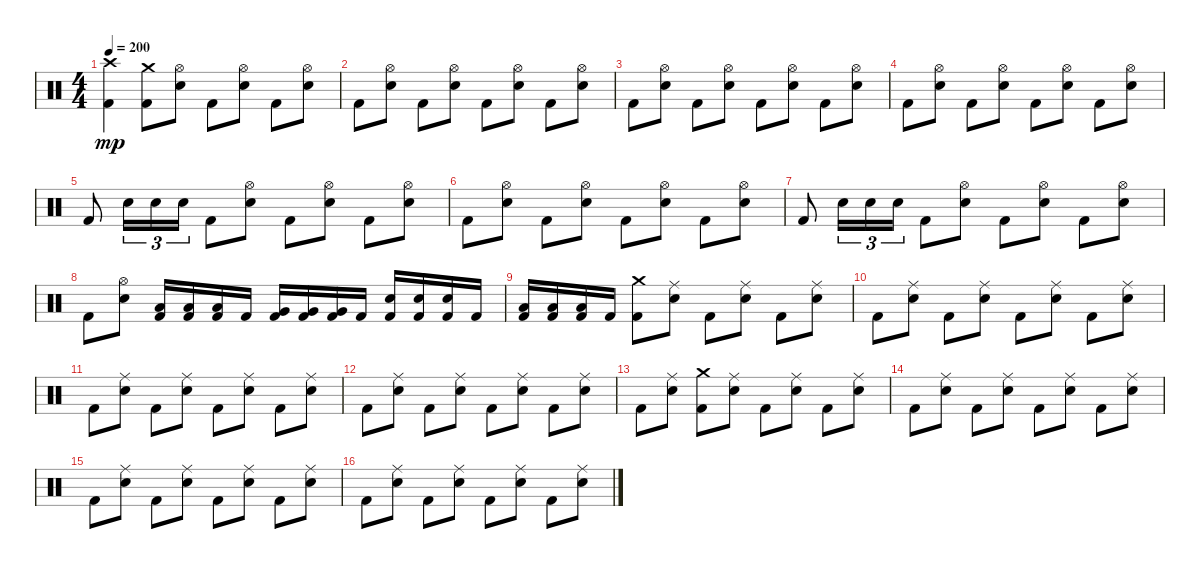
\track "" {instrument percussion}
\staff {score}
\articulation defaults
\ts (4 4)
\tempo 200
\clef neutral
\ks c
("Kick (hit) 2" "Crash high (hit)").4{dy mp} ("Kick (hit) 2" "Crash medium (hit)").8 ("Electric Snare (hit)" "Hi-Hat (open)").8 "Kick (hit) 2".8 ("Electric Snare (hit)" "Hi-Hat (open)").8 "Kick (hit) 2".8 ("Electric Snare (hit)" "Hi-Hat (open)").8 |
"Kick (hit) 2".8 ("Electric Snare (hit)" "Hi-Hat (open)").8 "Kick (hit) 2".8 ("Electric Snare (hit)" "Hi-Hat (open)").8 "Kick (hit) 2".8 ("Electric Snare (hit)" "Hi-Hat (open)").8 "Kick (hit) 2".8 ("Electric Snare (hit)" "Hi-Hat (open)").8 |
"Kick (hit) 2".8 ("Electric Snare (hit)" "Hi-Hat (open)").8 "Kick (hit) 2".8 ("Electric Snare (hit)" "Hi-Hat (open)").8 "Kick (hit) 2".8 ("Electric Snare (hit)" "Hi-Hat (open)").8 "Kick (hit) 2".8 ("Electric Snare (hit)" "Hi-Hat (open)").8 |
"Kick (hit) 2".8 ("Electric Snare (hit)" "Hi-Hat (open)").8 "Kick (hit) 2".8 ("Electric Snare (hit)" "Hi-Hat (open)").8 "Kick (hit) 2".8 ("Electric Snare (hit)" "Hi-Hat (open)").8 "Kick (hit) 2".8 ("Electric Snare (hit)" "Hi-Hat (open)").8 |
"Kick (hit) 2".8 "Electric Snare (hit)".16{tu (3 2)} "Electric Snare (hit)".16{tu (3 2)} "Electric Snare (hit)".16{tu (3 2)} "Kick (hit) 2".8 ("Electric Snare (hit)" "Hi-Hat (open)").8 "Kick (hit) 2".8 ("Electric Snare (hit)" "Hi-Hat (open)").8 "Kick (hit) 2".8 ("Electric Snare (hit)" "Hi-Hat (open)").8 |
"Kick (hit) 2".8 ("Electric Snare (hit)" "Hi-Hat (open)").8 "Kick (hit) 2".8 ("Electric Snare (hit)" "Hi-Hat (open)").8 "Kick (hit) 2".8 ("Electric Snare (hit)" "Hi-Hat (open)").8 "Kick (hit) 2".8 ("Electric Snare (hit)" "Hi-Hat (open)").8 |
"Kick (hit) 2".8 "Electric Snare (hit)".16{tu (3 2)} "Electric Snare (hit)".16{tu (3 2)} "Electric Snare (hit)".16{tu (3 2)} "Kick (hit) 2".8 ("Electric Snare (hit)" "Hi-Hat (open)").8 "Kick (hit) 2".8 ("Electric Snare (hit)" "Hi-Hat (open)").8 "Kick (hit) 2".8 ("Electric Snare (hit)" "Hi-Hat (open)").8 |
"Kick (hit) 2".8 ("Electric Snare (hit)" "Hi-Hat (open)").8 ("Kick (hit) 2" "Low Tom (hit)").16 ("Kick (hit) 2" "Low Tom (hit)").16 ("Kick (hit) 2" "Low Tom (hit)").16 "Kick (hit) 2".16 ("Kick (hit) 2" "Very Low Tom (hit)").16 ("Kick (hit) 2" "Very Low Tom (hit)").16 ("Kick (hit) 2" "Very Low Tom (hit)").16 "Kick (hit) 2".16 ("Kick (hit) 2" "Electric Snare (hit)").16 ("Kick (hit) 2" "Electric Snare (hit)").16 ("Kick (hit) 2" "Electric Snare (hit)").16 "Kick (hit) 2".16 |
("Kick (hit) 2" "Low Floor Tom (hit)").16 ("Kick (hit) 2" "Low Floor Tom (hit)").16 ("Kick (hit) 2" "Low Floor Tom (hit)").16 "Kick (hit) 2".16 ("Kick (hit) 2" "Crash medium (hit)").8 ("Electric Snare (hit)" "Ride (middle)").8 "Kick (hit) 2".8 ("Electric Snare (hit)" "Ride (middle)").8 "Kick (hit) 2".8 ("Electric Snare (hit)" "Ride (middle)").8 |
"Kick (hit) 2".8 ("Electric Snare (hit)" "Ride (middle)").8 "Kick (hit) 2".8 ("Electric Snare (hit)" "Ride (middle)").8 "Kick (hit) 2".8 ("Electric Snare (hit)" "Ride (middle)").8 "Kick (hit) 2".8 ("Electric Snare (hit)" "Ride (middle)").8 |
"Kick (hit) 2".8 ("Electric Snare (hit)" "Ride (middle)").8 "Kick (hit) 2".8 ("Electric Snare (hit)" "Ride (middle)").8 "Kick (hit) 2".8 ("Electric Snare (hit)" "Ride (middle)").8 "Kick (hit) 2".8 ("Electric Snare (hit)" "Ride (middle)").8 |
"Kick (hit) 2".8 ("Electric Snare (hit)" "Ride (middle)").8 "Kick (hit) 2".8 ("Electric Snare (hit)" "Ride (middle)").8 "Kick (hit) 2".8 ("Electric Snare (hit)" "Ride (middle)").8 "Kick (hit) 2".8 ("Electric Snare (hit)" "Ride (middle)").8 |
"Kick (hit) 2".8 ("Electric Snare (hit)" "Ride (middle)").8 ("Kick (hit) 2" "Crash medium (hit)").8 ("Electric Snare (hit)" "Ride (middle)").8 "Kick (hit) 2".8 ("Electric Snare (hit)" "Ride (middle)").8 "Kick (hit) 2".8 ("Electric Snare (hit)" "Ride (middle)").8 |
"Kick (hit) 2".8 ("Electric Snare (hit)" "Ride (middle)").8 "Kick (hit) 2".8 ("Electric Snare (hit)" "Ride (middle)").8 "Kick (hit) 2".8 ("Electric Snare (hit)" "Ride (middle)").8 "Kick (hit) 2".8 ("Electric Snare (hit)" "Ride (middle)").8 |
"Kick (hit) 2".8 ("Electric Snare (hit)" "Ride (middle)").8 "Kick (hit) 2".8 ("Electric Snare (hit)" "Ride (middle)").8 "Kick (hit) 2".8 ("Electric Snare (hit)" "Ride (middle)").8 "Kick (hit) 2".8 ("Electric Snare (hit)" "Ride (middle)").8 |
"Kick (hit) 2".8 ("Electric Snare (hit)" "Ride (middle)").8 "Kick (hit) 2".8 ("Electric Snare (hit)" "Ride (middle)").8 "Kick (hit) 2".8 ("Electric Snare (hit)" "Ride (middle)").8 "Kick (hit) 2".8 ("Electric Snare (hit)" "Ride (middle)").8
